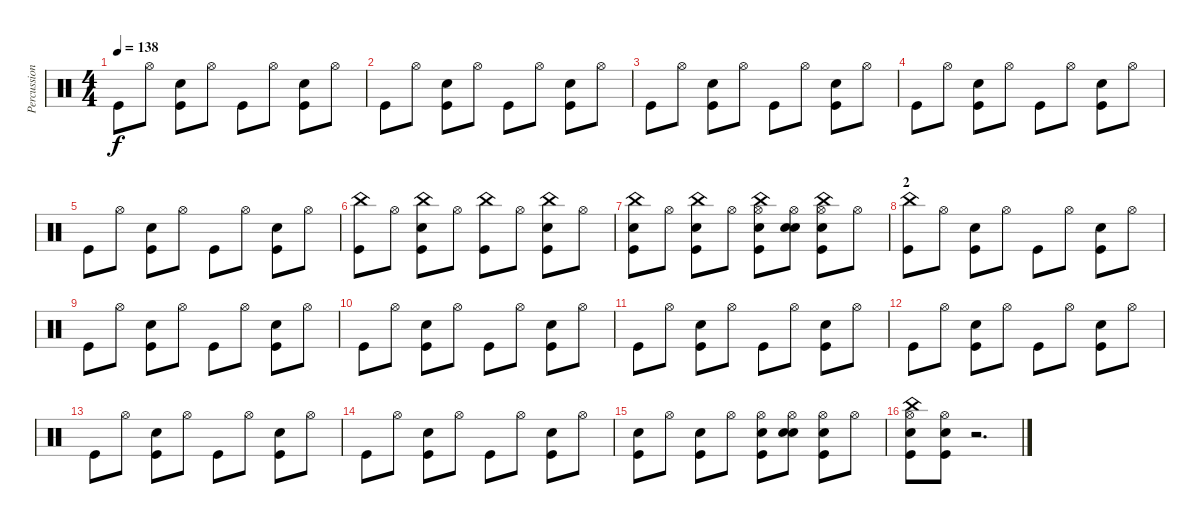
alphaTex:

\track ("Percussion" "Percussion") {instrument percussion}
\staff {score}
\articulation defaults
\ts (4 4)
\tempo 138
\clef neutral
\ks c "Kick (hit)".8{dy f} "Hi-Hat (open)".8
("Snare (hit) 2" "Kick (hit)").8 "Hi-Hat (open)".8 "Kick (hit)".8 "Hi-Hat (open)".8 ("Snare (hit) 2" "Kick (hit)").8 "Hi-Hat (open)".8 |
"Kick (hit)".8 "Hi-Hat (open)".8 ("Snare (hit) 2" "Kick (hit)").8 "Hi-Hat (open)".8 "Kick (hit)".8 "Hi-Hat (open)".8 ("Snare (hit) 2" "Kick (hit)").8 "Hi-Hat (open)".8 |
"Kick (hit)".8 "Hi-Hat (open)".8 ("Snare (hit) 2" "Kick (hit)").8 "Hi-Hat (open)".8 "Kick (hit)".8 "Hi-Hat (open)".8 ("Snare (hit) 2" "Kick (hit)").8 "Hi-Hat (open)".8 |
"Kick (hit)".8 "Hi-Hat (open)".8 ("Snare (hit) 2" "Kick (hit)").8 "Hi-Hat (open)".8 "Kick (hit)".8 "Hi-Hat (open)".8 ("Snare (hit) 2" "Kick (hit)").8 "Hi-Hat (open)".8 |
"Kick (hit)".8 "Hi-Hat (open)".8 ("Snare (hit) 2" "Kick (hit)").8 "Hi-Hat (open)".8 "Kick (hit)".8 "Hi-Hat (open)".8 ("Snare (hit) 2" "Kick (hit)").8 "Hi-Hat (open)".8 |
("China (hit)" "Kick (hit)").8 "Hi-Hat (open)".8 ("China (hit)" "Snare (hit) 2" "Kick (hit)").8 "Hi-Hat (open)".8 ("China (hit)" "Kick (hit)").8 "Hi-Hat (open)".8 ("China (hit)" "Snare (hit) 2" "Kick (hit)").8 "Hi-Hat (open)".8 |
("China (hit)" "Snare (hit) 2" "Kick (hit)").8 "Hi-Hat (open)".8 ("China (hit)" "Snare (hit) 2" "Kick (hit)").8 "Hi-Hat (open)".8 ("China (hit)" "Hi-Hat (open)" "Snare (hit) 2" "Kick (hit)").8 ("Hi-Hat (open)" "Snare (hit) 2" "Snare (hit) 2").8 ("China (hit)" "Hi-Hat (open)" "Snare (hit) 2" "Kick (hit)").8 "Hi-Hat (open)".8 |
\section ("" "2")
("China (hit)" "Kick (hit)").8 "Hi-Hat (open)".8 ("Snare (hit) 2" "Kick (hit)").8 "Hi-Hat (open)".8 "Kick (hit)".8 "Hi-Hat (open)".8 ("Snare (hit) 2" "Kick (hit)").8 "Hi-Hat (open)".8 |
"Kick (hit)".8 "Hi-Hat (open)".8 ("Snare (hit) 2" "Kick (hit)").8 "Hi-Hat (open)".8 "Kick (hit)".8 "Hi-Hat (open)".8 ("Snare (hit) 2" "Kick (hit)").8 "Hi-Hat (open)".8 |
"Kick (hit)".8 "Hi-Hat (open)".8 ("Snare (hit) 2" "Kick (hit)").8 "Hi-Hat (open)".8 "Kick (hit)".8 "Hi-Hat (open)".8 ("Snare (hit) 2" "Kick (hit)").8 "Hi-Hat (open)".8 |
"Kick (hit)".8 "Hi-Hat (open)".8 ("Snare (hit) 2" "Kick (hit)").8 "Hi-Hat (open)".8 "Kick (hit)".8 "Hi-Hat (open)".8 ("Snare (hit) 2" "Kick (hit)").8 "Hi-Hat (open)".8 |
"Kick (hit)".8 "Hi-Hat (open)".8 ("Snare (hit) 2" "Kick (hit)").8 "Hi-Hat (open)".8 "Kick (hit)".8 "Hi-Hat (open)".8 ("Snare (hit) 2" "Kick (hit)").8 "Hi-Hat (open)".8 |
"Kick (hit)".8 "Hi-Hat (open)".8 ("Snare (hit) 2" "Kick (hit)").8 "Hi-Hat (open)".8 "Kick (hit)".8 "Hi-Hat (open)".8 ("Snare (hit) 2" "Kick (hit)").8 "Hi-Hat (open)".8 |
"Kick (hit)".8 "Hi-Hat (open)".8 ("Snare (hit) 2" "Kick (hit)").8 "Hi-Hat (open)".8 "Kick (hit)".8 "Hi-Hat (open)".8 ("Snare (hit) 2" "Kick (hit)").8 "Hi-Hat (open)".8 |
("Snare (hit) 2" "Kick (hit)").8 "Hi-Hat (open)".8 ("Snare (hit) 2" "Kick (hit)").8 "Hi-Hat (open)".8 ("Hi-Hat (open)" "Snare (hit) 2" "Kick (hit)").8 ("Hi-Hat (open)" "Snare (hit) 2" "Snare (hit) 2").8 ("Hi-Hat (open)" "Snare (hit) 2" "Kick (hit)").8 "Hi-Hat (open)".8 |
("China (hit)" "Hi-Hat (open)" "Snare (hit) 2" "Kick (hit)").8 ("Hi-Hat (open)" "Snare (hit) 2" "Kick (hit)").8 r.2{d}
